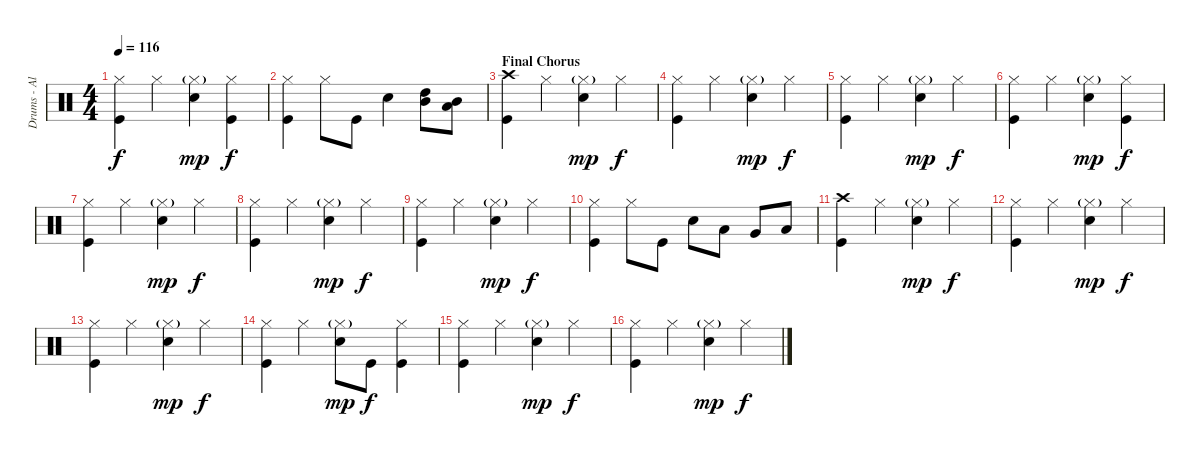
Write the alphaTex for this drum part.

\track ("Drums - Alex Holzwarth" "Drums - Al") {instrument percussion}
\staff {score}
\articulation defaults
\ts (4 4)
\tempo 116
\clef neutral
\ks c
("Hi-Hat (closed)" "Kick (hit)").4{dy f} "Hi-Hat (closed)".4 ("Snare (hit) 2" "Hi-Hat (closed)"{g}).4{dy mp} ("Hi-Hat (closed)" "Kick (hit)").4{dy f} |
("Hi-Hat (closed)" "Kick (hit)").4 "Hi-Hat (closed)".8 "Kick (hit)".8 "Snare (hit) 2".4 ("Mid Tom (hit)" "High Tom (hit)").8 ("Low Tom (hit)" "Mid Tom (hit)").8 |
\section ("" "Final Chorus")
("Crash high (hit)" "Kick (hit)").4 "Hi-Hat (closed)".4 ("Snare (hit) 2" "Hi-Hat (closed)"{g}).4{dy mp} "Hi-Hat (closed)".4{dy f} |
("Hi-Hat (closed)" "Kick (hit)").4 "Hi-Hat (closed)".4 ("Electric Snare (hit)" "Hi-Hat (closed)"{g}).4{dy mp} "Hi-Hat (closed)".4{dy f} |
("Hi-Hat (closed)" "Kick (hit)").4 "Hi-Hat (closed)".4 ("Snare (hit) 2" "Hi-Hat (closed)"{g}).4{dy mp} "Hi-Hat (closed)".4{dy f} |
("Hi-Hat (closed)" "Kick (hit)").4 "Hi-Hat (closed)".4 ("Electric Snare (hit)" "Hi-Hat (closed)"{g}).4{dy mp} ("Hi-Hat (closed)" "Kick (hit)").4{dy f} |
("Hi-Hat (closed)" "Kick (hit)").4 "Hi-Hat (closed)".4 ("Snare (hit) 2" "Hi-Hat (closed)"{g}).4{dy mp} "Hi-Hat (closed)".4{dy f} |
("Hi-Hat (closed)" "Kick (hit)").4 "Hi-Hat (closed)".4 ("Electric Snare (hit)" "Hi-Hat (closed)"{g}).4{dy mp} "Hi-Hat (closed)".4{dy f} |
("Hi-Hat (closed)" "Kick (hit)").4 "Hi-Hat (closed)".4 ("Electric Snare (hit)" "Hi-Hat (closed)"{g}).4{dy mp} "Hi-Hat (closed)".4{dy f} |
("Hi-Hat (closed)" "Kick (hit)").4 "Hi-Hat (closed)".8 "Kick (hit)".8 "Electric Snare (hit)".8 "Low Tom (hit)".8 "Very Low Tom (hit)".8 "Low Floor Tom (hit)".8 |
("Crash high (hit)" "Kick (hit)").4 "Hi-Hat (closed)".4 ("Snare (hit) 2" "Hi-Hat (closed)"{g}).4{dy mp} "Hi-Hat (closed)".4{dy f} |
("Hi-Hat (closed)" "Kick (hit)").4 "Hi-Hat (closed)".4 ("Electric Snare (hit)" "Hi-Hat (closed)"{g}).4{dy mp} "Hi-Hat (closed)".4{dy f} |
("Hi-Hat (closed)" "Kick (hit)").4 "Hi-Hat (closed)".4 ("Snare (hit) 2" "Hi-Hat (closed)"{g}).4{dy mp} "Hi-Hat (closed)".4{dy f} |
("Hi-Hat (closed)" "Kick (hit)").4 "Hi-Hat (closed)".4 ("Electric Snare (hit)" "Hi-Hat (closed)"{g}).8{dy mp} "Kick (hit)".8{dy f} ("Hi-Hat (closed)" "Kick (hit)").4 |
("Hi-Hat (closed)" "Kick (hit)").4 "Hi-Hat (closed)".4 ("Electric Snare (hit)" "Hi-Hat (closed)"{g}).4{dy mp} "Hi-Hat (closed)".4{dy f} |
("Hi-Hat (closed)" "Kick (hit)").4 "Hi-Hat (closed)".4 ("Snare (hit) 2" "Hi-Hat (closed)"{g}).4{dy mp} "Hi-Hat (closed)".4{dy f}
